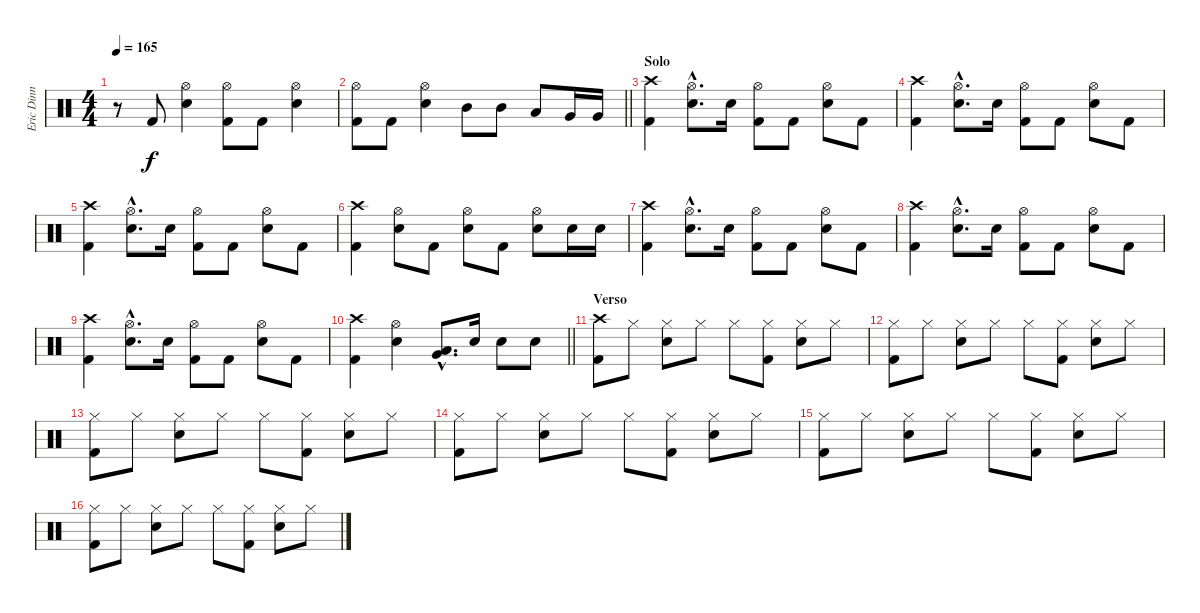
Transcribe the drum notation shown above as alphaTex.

\track ("Eric Dinn" "Eric Dinn") {instrument percussion}
\staff {score}
\articulation defaults
\ts (4 4)
\tempo 165
\clef neutral
\ks c
r.8{dy f} "Kick (hit) 2".8 ("Hi-Hat (open)" "Snare (hit) 2").4 ("Hi-Hat (open)" "Kick (hit) 2").8 "Kick (hit) 2".8 ("Hi-Hat (open)" "Snare (hit) 2").4 |
\barLineRight lightlight
("Hi-Hat (open)" "Kick (hit) 2").8 "Kick (hit) 2".8 ("Hi-Hat (open)" "Snare (hit) 2").4 "Mid Tom (hit)".8 "Mid Tom (hit)".8 "Low Tom (hit)".8 "Very Low Tom (hit)".16 "Very Low Tom (hit)".16 |
\section ("" "Solo")
("Crash high (hit)" "Kick (hit) 2").4 ("Hi-Hat (open)"{hac} "Snare (hit) 2"{hac}).8{d} "Snare (hit) 2".16 ("Hi-Hat (open)" "Kick (hit) 2").8 "Kick (hit) 2".8 ("Hi-Hat (open)" "Snare (hit) 2").8 "Kick (hit) 2".8 |
("Crash high (hit)" "Kick (hit) 2").4 ("Hi-Hat (open)"{hac} "Snare (hit) 2"{hac}).8{d} "Snare (hit) 2".16 ("Hi-Hat (open)" "Kick (hit) 2").8 "Kick (hit) 2".8 ("Hi-Hat (open)" "Snare (hit) 2").8 "Kick (hit) 2".8 |
("Crash high (hit)" "Kick (hit) 2").4 ("Hi-Hat (open)"{hac} "Snare (hit) 2"{hac}).8{d} "Snare (hit) 2".16 ("Hi-Hat (open)" "Kick (hit) 2").8 "Kick (hit) 2".8 ("Hi-Hat (open)" "Snare (hit) 2").8 "Kick (hit) 2".8 |
("Crash high (hit)" "Kick (hit) 2").4 ("Hi-Hat (open)" "Snare (hit) 2").8 "Kick (hit) 2".8 ("Hi-Hat (open)" "Snare (hit) 2").8 "Kick (hit) 2".8 ("Hi-Hat (open)" "Snare (hit) 2").8 "Snare (hit) 2".16 "Snare (hit) 2".16 |
("Crash high (hit)" "Kick (hit) 2").4 ("Hi-Hat (open)"{hac} "Snare (hit) 2"{hac}).8{d} "Snare (hit) 2".16 ("Hi-Hat (open)" "Kick (hit) 2").8 "Kick (hit) 2".8 ("Hi-Hat (open)" "Snare (hit) 2").8 "Kick (hit) 2".8 |
("Crash high (hit)" "Kick (hit) 2").4 ("Hi-Hat (open)"{hac} "Snare (hit) 2"{hac}).8{d} "Snare (hit) 2".16 ("Hi-Hat (open)" "Kick (hit) 2").8 "Kick (hit) 2".8 ("Hi-Hat (open)" "Snare (hit) 2").8 "Kick (hit) 2".8 |
("Crash high (hit)" "Kick (hit) 2").4 ("Hi-Hat (open)"{hac} "Snare (hit) 2"{hac}).8{d} "Snare (hit) 2".16 ("Hi-Hat (open)" "Kick (hit) 2").8 "Kick (hit) 2".8 ("Hi-Hat (open)" "Snare (hit) 2").8 "Kick (hit) 2".8 |
\barLineRight lightlight
("Crash high (hit)" "Kick (hit) 2").4 ("Hi-Hat (open)" "Snare (hit) 2").4 ("Very Low Tom (hit)"{hac} "Low Tom (hit)"{hac}).8{d} "Snare (hit) 2".16 "Snare (hit) 2".8 "Snare (hit) 2".8 |
\section ("" "Verso")
("Crash high (hit)" "Kick (hit) 2").8 "Hi-Hat (closed)".8 ("Hi-Hat (closed)" "Snare (hit) 2").8 "Hi-Hat (closed)".8 "Hi-Hat (closed)".8 ("Hi-Hat (closed)" "Kick (hit) 2").8 ("Hi-Hat (closed)" "Snare (hit) 2").8 "Hi-Hat (closed)".8 |
("Hi-Hat (closed)" "Kick (hit) 2").8 "Hi-Hat (closed)".8 ("Hi-Hat (closed)" "Snare (hit) 2").8 "Hi-Hat (closed)".8 "Hi-Hat (closed)".8 ("Hi-Hat (closed)" "Kick (hit) 2").8 ("Hi-Hat (closed)" "Snare (hit) 2").8 "Hi-Hat (closed)".8 |
("Hi-Hat (closed)" "Kick (hit) 2").8 "Hi-Hat (closed)".8 ("Hi-Hat (closed)" "Snare (hit) 2").8 "Hi-Hat (closed)".8 "Hi-Hat (closed)".8 ("Hi-Hat (closed)" "Kick (hit) 2").8 ("Hi-Hat (closed)" "Snare (hit) 2").8 "Hi-Hat (closed)".8 |
("Hi-Hat (closed)" "Kick (hit) 2").8 "Hi-Hat (closed)".8 ("Hi-Hat (closed)" "Snare (hit) 2").8 "Hi-Hat (closed)".8 "Hi-Hat (closed)".8 ("Hi-Hat (closed)" "Kick (hit) 2").8 ("Hi-Hat (closed)" "Snare (hit) 2").8 "Hi-Hat (closed)".8 |
("Hi-Hat (closed)" "Kick (hit) 2").8 "Hi-Hat (closed)".8 ("Hi-Hat (closed)" "Snare (hit) 2").8 "Hi-Hat (closed)".8 "Hi-Hat (closed)".8 ("Hi-Hat (closed)" "Kick (hit) 2").8 ("Hi-Hat (closed)" "Snare (hit) 2").8 "Hi-Hat (closed)".8 |
("Hi-Hat (closed)" "Kick (hit) 2").8 "Hi-Hat (closed)".8 ("Hi-Hat (closed)" "Snare (hit) 2").8 "Hi-Hat (closed)".8 "Hi-Hat (closed)".8 ("Hi-Hat (closed)" "Kick (hit) 2").8 ("Hi-Hat (closed)" "Snare (hit) 2").8 "Hi-Hat (closed)".8
